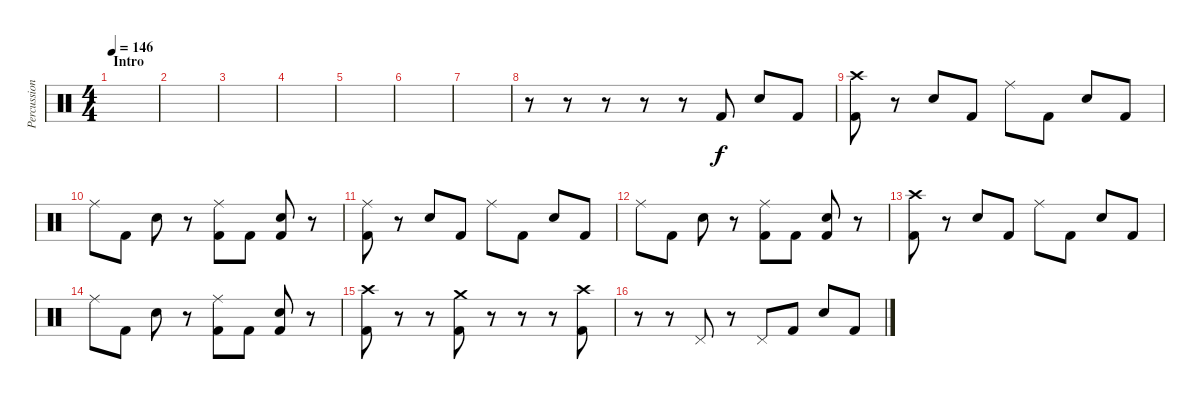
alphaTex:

\track ("Percussion" "Percussion") {instrument percussion}
\staff {score}
\articulation defaults
\ts (4 4)
\section ("" "Intro")
\tempo 146
\clef neutral
\ks c
|
|
|
|
|
|
|
r.8 r.8 r.8 r.8 r.8 "Kick (hit) 2".8 "Electric Snare (hit)".8 "Kick (hit) 2".8 |
("Crash high (hit)" "Kick (hit) 2").8 r.8 "Electric Snare (hit)".8 "Kick (hit) 2".8 "Ride (middle)".8 "Kick (hit) 2".8 "Electric Snare (hit)".8 "Kick (hit) 2".8 |
"Ride (middle)".8 "Kick (hit) 2".8 "Electric Snare (hit)".8 r.8 ("Ride (middle)" "Kick (hit) 2").8 "Kick (hit) 2".8 ("Electric Snare (hit)" "Kick (hit) 2").8 r.8 |
("Ride (middle)" "Kick (hit) 2").8 r.8 "Electric Snare (hit)".8 "Kick (hit) 2".8 "Ride (middle)".8 "Kick (hit) 2".8 "Electric Snare (hit)".8 "Kick (hit) 2".8 |
"Ride (middle)".8 "Kick (hit) 2".8 "Electric Snare (hit)".8 r.8 ("Ride (middle)" "Kick (hit) 2").8 "Kick (hit) 2".8 ("Electric Snare (hit)" "Kick (hit) 2").8 r.8 |
("Crash high (hit)" "Kick (hit) 2").8 r.8 "Electric Snare (hit)".8 "Kick (hit) 2".8 "Ride (middle)".8 "Kick (hit) 2".8 "Electric Snare (hit)".8 "Kick (hit) 2".8 |
"Ride (middle)".8 "Kick (hit) 2".8 "Electric Snare (hit)".8 r.8 ("Ride (middle)" "Kick (hit) 2").8 "Kick (hit) 2".8 ("Electric Snare (hit)" "Kick (hit) 2").8 r.8 |
("Crash high (hit)" "Kick (hit) 2").8 r.8 r.8 ("Crash medium (hit)" "Kick (hit) 2").8 r.8 r.8 r.8 ("Crash high (hit)" "Kick (hit) 2").8 |
r.8 r.8 "Pedal Hi-Hat (hit)".8 r.8 "Pedal Hi-Hat (hit)".8 "Kick (hit) 2".8 "Electric Snare (hit)".8 "Kick (hit) 2".8
